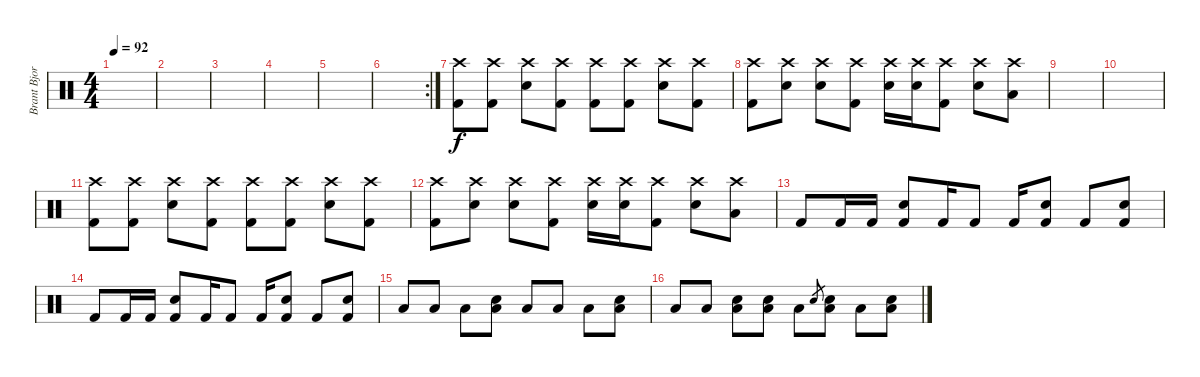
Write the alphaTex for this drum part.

\track ("Brant Bjork" "Brant Bjor") {instrument percussion}
\staff {score}
\articulation defaults
\ts (4 4)
\tempo 92
\clef neutral
\ks c
|
|
|
|
|
\rc 2
|
("Crash high (hit)" "Kick (hit) 2").8 ("Crash high (hit)" "Kick (hit) 2").8 ("Crash high (hit)" "Snare (hit) 2").8 ("Crash high (hit)" "Kick (hit) 2").8 ("Crash high (hit)" "Kick (hit) 2").8 ("Crash high (hit)" "Kick (hit) 2").8 ("Crash high (hit)" "Snare (hit) 2").8 ("Crash high (hit)" "Kick (hit) 2").8 |
("Crash high (hit)" "Kick (hit) 2").8 ("Crash high (hit)" "Snare (hit) 2").8 ("Crash high (hit)" "Snare (hit) 2").8 ("Crash high (hit)" "Kick (hit) 2").8 ("Crash high (hit)" "Snare (hit) 2").16 ("Crash high (hit)" "Snare (hit) 2").16 ("Crash high (hit)" "Kick (hit) 2").8 ("Crash high (hit)" "Snare (hit) 2").8 ("Crash high (hit)" "Low Floor Tom (hit)").8 |
|
|
("Crash high (hit)" "Kick (hit) 2").8 ("Crash high (hit)" "Kick (hit) 2").8 ("Crash high (hit)" "Snare (hit) 2").8 ("Crash high (hit)" "Kick (hit) 2").8 ("Crash high (hit)" "Kick (hit) 2").8 ("Crash high (hit)" "Kick (hit) 2").8 ("Crash high (hit)" "Snare (hit) 2").8 ("Crash high (hit)" "Kick (hit) 2").8 |
("Crash high (hit)" "Kick (hit) 2").8 ("Crash high (hit)" "Snare (hit) 2").8 ("Crash high (hit)" "Snare (hit) 2").8 ("Crash high (hit)" "Kick (hit) 2").8 ("Crash high (hit)" "Snare (hit) 2").16 ("Crash high (hit)" "Snare (hit) 2").16 ("Crash high (hit)" "Kick (hit) 2").8 ("Crash high (hit)" "Snare (hit) 2").8 ("Crash high (hit)" "Low Floor Tom (hit)").8 |
"Kick (hit) 2".8 "Kick (hit) 2".16 "Kick (hit) 2".16 ("Snare (hit) 2" "Kick (hit) 2").8 "Kick (hit) 2".16 "Kick (hit) 2".8 "Kick (hit) 2".16 ("Snare (hit) 2" "Kick (hit) 2").8 "Kick (hit) 2".8 ("Snare (hit) 2" "Kick (hit) 2").8 |
"Kick (hit) 2".8 "Kick (hit) 2".16 "Kick (hit) 2".16 ("Snare (hit) 2" "Kick (hit) 2").8 "Kick (hit) 2".16 "Kick (hit) 2".8 "Kick (hit) 2".16 ("Snare (hit) 2" "Kick (hit) 2").8 "Kick (hit) 2".8 ("Snare (hit) 2" "Kick (hit) 2").8 |
"Low Floor Tom (hit)".8 "Low Floor Tom (hit)".8 "Low Floor Tom (hit)".8 ("Snare (hit) 2" "Low Floor Tom (hit)").8 "Low Floor Tom (hit)".8 "Low Floor Tom (hit)".8 "Low Floor Tom (hit)".8 ("Snare (hit) 2" "Low Floor Tom (hit)").8 |
"Low Floor Tom (hit)".8 "Low Floor Tom (hit)".8 ("Snare (hit) 2" "Low Floor Tom (hit)").8 ("Snare (hit) 2" "Low Floor Tom (hit)").8 "Low Floor Tom (hit)".8 "Snare (hit) 2".8{gr} ("Snare (hit) 2" "Low Floor Tom (hit)").8 "Low Floor Tom (hit)".8 ("Snare (hit) 2" "Low Floor Tom (hit)").8
